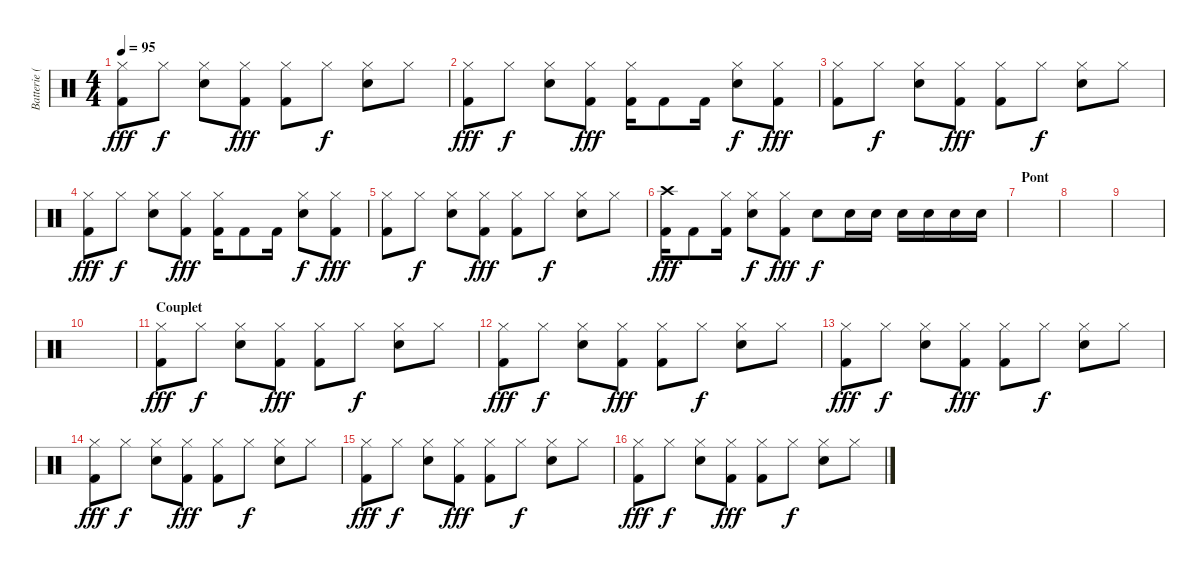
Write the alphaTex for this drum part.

\track ("Batterie (Hervé)" "Batterie (") {instrument percussion}
\staff {score}
\articulation defaults
\ts (4 4)
\tempo 95
\clef neutral
\ks c
("Kick (hit) 2" "Hi-Hat (closed)").8{dy fff} "Hi-Hat (closed)".8{dy f} ("Snare (hit) 2" "Hi-Hat (closed)").8 ("Kick (hit) 2" "Hi-Hat (closed)").8{dy fff} ("Kick (hit) 2" "Hi-Hat (closed)").8 "Hi-Hat (closed)".8{dy f} ("Snare (hit) 2" "Hi-Hat (closed)").8 "Hi-Hat (closed)".8 |
("Kick (hit) 2" "Hi-Hat (closed)").8{dy fff} "Hi-Hat (closed)".8{dy f} ("Snare (hit) 2" "Hi-Hat (closed)").8 ("Kick (hit) 2" "Hi-Hat (closed)").8{dy fff} ("Kick (hit) 2" "Hi-Hat (closed)").16 "Kick (hit) 2".8 "Kick (hit) 2".16 ("Snare (hit) 2" "Hi-Hat (closed)").8{dy f} ("Kick (hit) 2" "Hi-Hat (closed)").8{dy fff} |
("Kick (hit) 2" "Hi-Hat (closed)").8 "Hi-Hat (closed)".8{dy f} ("Snare (hit) 2" "Hi-Hat (closed)").8 ("Kick (hit) 2" "Hi-Hat (closed)").8{dy fff} ("Kick (hit) 2" "Hi-Hat (closed)").8 "Hi-Hat (closed)".8{dy f} ("Snare (hit) 2" "Hi-Hat (closed)").8 "Hi-Hat (closed)".8 |
("Kick (hit) 2" "Hi-Hat (closed)").8{dy fff} "Hi-Hat (closed)".8{dy f} ("Snare (hit) 2" "Hi-Hat (closed)").8 ("Kick (hit) 2" "Hi-Hat (closed)").8{dy fff} ("Kick (hit) 2" "Hi-Hat (closed)").16 "Kick (hit) 2".8 "Kick (hit) 2".16 ("Snare (hit) 2" "Hi-Hat (closed)").8{dy f} ("Kick (hit) 2" "Hi-Hat (closed)").8{dy fff} |
("Kick (hit) 2" "Hi-Hat (closed)").8 "Hi-Hat (closed)".8{dy f} ("Snare (hit) 2" "Hi-Hat (closed)").8 ("Kick (hit) 2" "Hi-Hat (closed)").8{dy fff} ("Kick (hit) 2" "Hi-Hat (closed)").8 "Hi-Hat (closed)".8{dy f} ("Snare (hit) 2" "Hi-Hat (closed)").8 "Hi-Hat (closed)".8 |
("Kick (hit) 2" "Crash high (hit)").16{dy fff} "Kick (hit) 2".8 ("Kick (hit) 2" "Hi-Hat (closed)").16 ("Snare (hit) 2" "Hi-Hat (closed)").8{dy f} ("Kick (hit) 2" "Hi-Hat (closed)").8{dy fff} "Snare (hit) 2".8{dy f} "Snare (hit) 2".16 "Snare (hit) 2".16 "Snare (hit) 2".16 "Snare (hit) 2".16 "Snare (hit) 2".16 "Snare (hit) 2".16 |
\section ("" "Pont")
|
|
|
|
\section ("" "Couplet")
("Kick (hit) 2" "Hi-Hat (closed)").8{dy fff} "Hi-Hat (closed)".8{dy f} ("Snare (hit) 2" "Hi-Hat (closed)").8 ("Kick (hit) 2" "Hi-Hat (closed)").8{dy fff} ("Kick (hit) 2" "Hi-Hat (closed)").8 "Hi-Hat (closed)".8{dy f} ("Snare (hit) 2" "Hi-Hat (closed)").8 "Hi-Hat (closed)".8 |
("Kick (hit) 2" "Hi-Hat (closed)").8{dy fff} "Hi-Hat (closed)".8{dy f} ("Snare (hit) 2" "Hi-Hat (closed)").8 ("Kick (hit) 2" "Hi-Hat (closed)").8{dy fff} ("Kick (hit) 2" "Hi-Hat (closed)").8 "Hi-Hat (closed)".8{dy f} ("Snare (hit) 2" "Hi-Hat (closed)").8 "Hi-Hat (closed)".8 |
("Kick (hit) 2" "Hi-Hat (closed)").8{dy fff} "Hi-Hat (closed)".8{dy f} ("Snare (hit) 2" "Hi-Hat (closed)").8 ("Kick (hit) 2" "Hi-Hat (closed)").8{dy fff} ("Kick (hit) 2" "Hi-Hat (closed)").8 "Hi-Hat (closed)".8{dy f} ("Snare (hit) 2" "Hi-Hat (closed)").8 "Hi-Hat (closed)".8 |
("Kick (hit) 2" "Hi-Hat (closed)").8{dy fff} "Hi-Hat (closed)".8{dy f} ("Snare (hit) 2" "Hi-Hat (closed)").8 ("Kick (hit) 2" "Hi-Hat (closed)").8{dy fff} ("Kick (hit) 2" "Hi-Hat (closed)").8 "Hi-Hat (closed)".8{dy f} ("Snare (hit) 2" "Hi-Hat (closed)").8 "Hi-Hat (closed)".8 |
("Kick (hit) 2" "Hi-Hat (closed)").8{dy fff} "Hi-Hat (closed)".8{dy f} ("Snare (hit) 2" "Hi-Hat (closed)").8 ("Kick (hit) 2" "Hi-Hat (closed)").8{dy fff} ("Kick (hit) 2" "Hi-Hat (closed)").8 "Hi-Hat (closed)".8{dy f} ("Snare (hit) 2" "Hi-Hat (closed)").8 "Hi-Hat (closed)".8 |
("Kick (hit) 2" "Hi-Hat (closed)").8{dy fff} "Hi-Hat (closed)".8{dy f} ("Snare (hit) 2" "Hi-Hat (closed)").8 ("Kick (hit) 2" "Hi-Hat (closed)").8{dy fff} ("Kick (hit) 2" "Hi-Hat (closed)").8 "Hi-Hat (closed)".8{dy f} ("Snare (hit) 2" "Hi-Hat (closed)").8 "Hi-Hat (closed)".8
